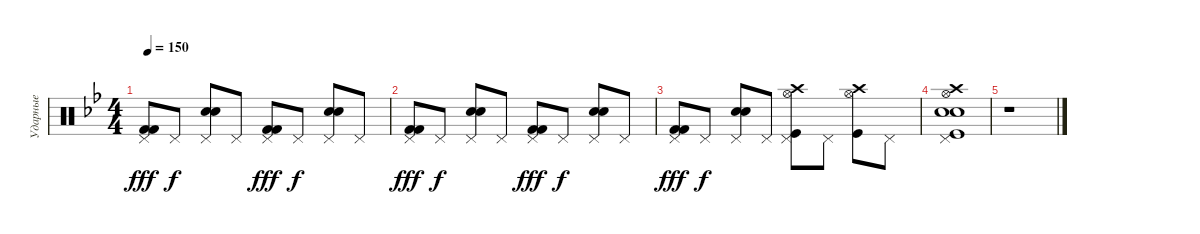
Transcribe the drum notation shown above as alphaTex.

\track ("Ударные" "Ударные") {instrument percussion}
\staff {score}
\articulation defaults
\ts (4 4)
\tempo 150
\clef neutral
\ks gminor
("Kick (hit) 2" "Kick (hit) 2" "Pedal Hi-Hat (hit)").8{dy fff} "Pedal Hi-Hat (hit)".8{dy f} ("Electric Snare (hit)" "Electric Snare (hit)" "Pedal Hi-Hat (hit)").8 "Pedal Hi-Hat (hit)".8 ("Kick (hit) 2" "Kick (hit) 2" "Pedal Hi-Hat (hit)").8{dy fff} "Pedal Hi-Hat (hit)".8{dy f} ("Electric Snare (hit)" "Electric Snare (hit)" "Pedal Hi-Hat (hit)").8 "Pedal Hi-Hat (hit)".8 |
("Kick (hit) 2" "Kick (hit) 2" "Pedal Hi-Hat (hit)").8{dy fff} "Pedal Hi-Hat (hit)".8{dy f} ("Electric Snare (hit)" "Electric Snare (hit)" "Pedal Hi-Hat (hit)").8 "Pedal Hi-Hat (hit)".8 ("Kick (hit) 2" "Kick (hit) 2" "Pedal Hi-Hat (hit)").8{dy fff} "Pedal Hi-Hat (hit)".8{dy f} ("Electric Snare (hit)" "Electric Snare (hit)" "Pedal Hi-Hat (hit)").8 "Pedal Hi-Hat (hit)".8 |
("Kick (hit) 2" "Kick (hit) 2" "Pedal Hi-Hat (hit)").8{dy fff} "Pedal Hi-Hat (hit)".8{dy f} ("Electric Snare (hit)" "Electric Snare (hit)" "Pedal Hi-Hat (hit)").8 "Pedal Hi-Hat (hit)".8 ("Pedal Hi-Hat (hit)" "Hi-Hat (open)" "Kick (hit)" "Crash high (hit)").8 "Pedal Hi-Hat (hit)".8 ("Kick (hit)" "Hi-Hat (open)" "Crash high (hit)").8 "Pedal Hi-Hat (hit)".8 |
("Pedal Hi-Hat (hit)" "Hi-Hat (open)" "Kick (hit)" "Crash high (hit)" "Snare (hit) 2" "Snare (hit) 2").1 |
r.1
